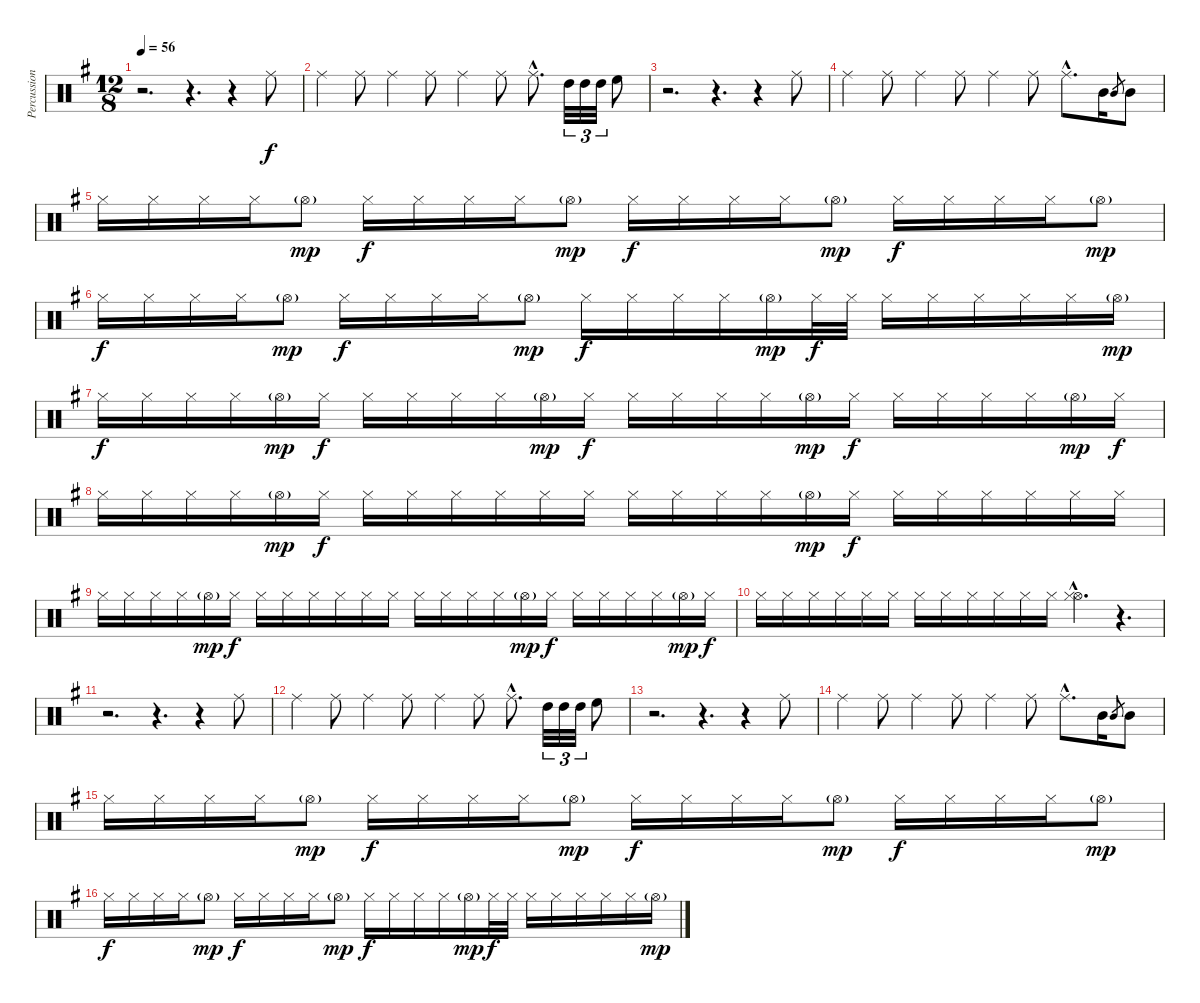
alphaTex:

\track ("Percussions" "Percussion") {instrument percussion}
\staff {score}
\articulation defaults
\ts (12 8)
\tempo 56
\clef neutral
\ks eminor
r.2{d dy f} r.4{d} r.4 "Ride (middle)".8 |
"Ride (middle)".4 "Ride (middle)".8 "Ride (middle)".4 "Ride (middle)".8 "Ride (middle)".4 "Ride (middle)".8 "Ride (middle)"{hac}.8{d} "High Tom (hit)".32{tu (3 2)} "High Tom (hit)".32{tu (3 2)} "High Tom (hit)".32{tu (3 2)} "High Floor Tom (hit)".8 |
r.2{d} r.4{d} r.4 "Ride (middle)".8 |
"Ride (middle)".4 "Ride (middle)".8 "Ride (middle)".4 "Ride (middle)".8 "Ride (middle)".4 "Ride (middle)".8 "Ride (middle)"{hac}.8{d} "Mid Tom (hit)".16 "Mid Tom (hit)".8{gr} "Mid Tom (hit)".8 |
"Hi-Hat (closed)".16 "Hi-Hat (closed)".16 "Hi-Hat (closed)".16 "Hi-Hat (closed)".16 "Hi-Hat (open)"{g}.8{dy mp} "Hi-Hat (closed)".16{dy f} "Hi-Hat (closed)".16 "Hi-Hat (closed)".16 "Hi-Hat (closed)".16 "Hi-Hat (open)"{g}.8{dy mp} "Hi-Hat (closed)".16{dy f} "Hi-Hat (closed)".16 "Hi-Hat (closed)".16 "Hi-Hat (closed)".16 "Hi-Hat (open)"{g}.8{dy mp} "Hi-Hat (closed)".16{dy f} "Hi-Hat (closed)".16 "Hi-Hat (closed)".16 "Hi-Hat (closed)".16 "Hi-Hat (open)"{g}.8{dy mp} |
"Hi-Hat (closed)".16{dy f} "Hi-Hat (closed)".16 "Hi-Hat (closed)".16 "Hi-Hat (closed)".16 "Hi-Hat (open)"{g}.8{dy mp} "Hi-Hat (closed)".16{dy f} "Hi-Hat (closed)".16 "Hi-Hat (closed)".16 "Hi-Hat (closed)".16 "Hi-Hat (open)"{g}.8{dy mp} "Hi-Hat (closed)".16{dy f} "Hi-Hat (closed)".16 "Hi-Hat (closed)".16 "Hi-Hat (closed)".16 "Hi-Hat (open)"{g}.16{dy mp} "Hi-Hat (closed)".32{dy f} "Hi-Hat (closed)".32 "Hi-Hat (closed)".16 "Hi-Hat (closed)".16 "Hi-Hat (closed)".16 "Hi-Hat (closed)".16 "Hi-Hat (closed)".16 "Hi-Hat (open)"{g}.16{dy mp} |
"Hi-Hat (closed)".16{dy f} "Hi-Hat (closed)".16 "Hi-Hat (closed)".16 "Hi-Hat (closed)".16 "Hi-Hat (open)"{g}.16{dy mp} "Hi-Hat (closed)".16{dy f} "Hi-Hat (closed)".16 "Hi-Hat (closed)".16 "Hi-Hat (closed)".16 "Hi-Hat (closed)".16 "Hi-Hat (open)"{g}.16{dy mp} "Hi-Hat (closed)".16{dy f} "Hi-Hat (closed)".16 "Hi-Hat (closed)".16 "Hi-Hat (closed)".16 "Hi-Hat (closed)".16 "Hi-Hat (open)"{g}.16{dy mp} "Hi-Hat (closed)".16{dy f} "Hi-Hat (closed)".16 "Hi-Hat (closed)".16 "Hi-Hat (closed)".16 "Hi-Hat (closed)".16 "Hi-Hat (open)"{g}.16{dy mp} "Hi-Hat (closed)".16{dy f} |
"Hi-Hat (closed)".16 "Hi-Hat (closed)".16 "Hi-Hat (closed)".16 "Hi-Hat (closed)".16 "Hi-Hat (open)"{g}.16{dy mp} "Hi-Hat (closed)".16{dy f} "Hi-Hat (closed)".16 "Hi-Hat (closed)".16 "Hi-Hat (closed)".16 "Hi-Hat (closed)".16 "Hi-Hat (closed)".16 "Hi-Hat (closed)".16 "Hi-Hat (closed)".16 "Hi-Hat (closed)".16 "Hi-Hat (closed)".16 "Hi-Hat (closed)".16 "Hi-Hat (open)"{g}.16{dy mp} "Hi-Hat (closed)".16{dy f} "Hi-Hat (closed)".16 "Hi-Hat (closed)".16 "Hi-Hat (closed)".16 "Hi-Hat (closed)".16 "Hi-Hat (closed)".16 "Hi-Hat (closed)".16 |
"Hi-Hat (closed)".16 "Hi-Hat (closed)".16 "Hi-Hat (closed)".16 "Hi-Hat (closed)".16 "Hi-Hat (open)"{g}.16{dy mp} "Hi-Hat (closed)".16{dy f} "Hi-Hat (closed)".16 "Hi-Hat (closed)".16 "Hi-Hat (closed)".16 "Hi-Hat (closed)".16 "Hi-Hat (closed)".16 "Hi-Hat (closed)".16 "Hi-Hat (closed)".16 "Hi-Hat (closed)".16 "Hi-Hat (closed)".16 "Hi-Hat (closed)".16 "Hi-Hat (open)"{g}.16{dy mp} "Hi-Hat (closed)".16{dy f} "Hi-Hat (closed)".16 "Hi-Hat (closed)".16 "Hi-Hat (closed)".16 "Hi-Hat (closed)".16 "Hi-Hat (open)"{g}.16{dy mp} "Hi-Hat (closed)".16{dy f} |
"Hi-Hat (closed)".16 "Hi-Hat (closed)".16 "Hi-Hat (closed)".16 "Hi-Hat (closed)".16 "Hi-Hat (closed)".16 "Hi-Hat (closed)".16 "Hi-Hat (closed)".16 "Hi-Hat (closed)".16 "Hi-Hat (closed)".16 "Hi-Hat (closed)".16 "Hi-Hat (closed)".16 "Hi-Hat (closed)".16 ("Hi-Hat (open)"{hac} "Hi-Hat (closed)"{hac}).4{d} r.4{d} |
r.2{d} r.4{d} r.4 "Ride (middle)".8 |
"Ride (middle)".4 "Ride (middle)".8 "Ride (middle)".4 "Ride (middle)".8 "Ride (middle)".4 "Ride (middle)".8 "Ride (middle)"{hac}.8{d} "High Tom (hit)".32{tu (3 2)} "High Tom (hit)".32{tu (3 2)} "High Tom (hit)".32{tu (3 2)} "High Floor Tom (hit)".8 |
r.2{d} r.4{d} r.4 "Ride (middle)".8 |
"Ride (middle)".4 "Ride (middle)".8 "Ride (middle)".4 "Ride (middle)".8 "Ride (middle)".4 "Ride (middle)".8 "Ride (middle)"{hac}.8{d} "Mid Tom (hit)".16 "Mid Tom (hit)".8{gr} "Mid Tom (hit)".8 |
"Hi-Hat (closed)".16 "Hi-Hat (closed)".16 "Hi-Hat (closed)".16 "Hi-Hat (closed)".16 "Hi-Hat (open)"{g}.8{dy mp} "Hi-Hat (closed)".16{dy f} "Hi-Hat (closed)".16 "Hi-Hat (closed)".16 "Hi-Hat (closed)".16 "Hi-Hat (open)"{g}.8{dy mp} "Hi-Hat (closed)".16{dy f} "Hi-Hat (closed)".16 "Hi-Hat (closed)".16 "Hi-Hat (closed)".16 "Hi-Hat (open)"{g}.8{dy mp} "Hi-Hat (closed)".16{dy f} "Hi-Hat (closed)".16 "Hi-Hat (closed)".16 "Hi-Hat (closed)".16 "Hi-Hat (open)"{g}.8{dy mp} |
"Hi-Hat (closed)".16{dy f} "Hi-Hat (closed)".16 "Hi-Hat (closed)".16 "Hi-Hat (closed)".16 "Hi-Hat (open)"{g}.8{dy mp} "Hi-Hat (closed)".16{dy f} "Hi-Hat (closed)".16 "Hi-Hat (closed)".16 "Hi-Hat (closed)".16 "Hi-Hat (open)"{g}.8{dy mp} "Hi-Hat (closed)".16{dy f} "Hi-Hat (closed)".16 "Hi-Hat (closed)".16 "Hi-Hat (closed)".16 "Hi-Hat (open)"{g}.16{dy mp} "Hi-Hat (closed)".32{dy f} "Hi-Hat (closed)".32 "Hi-Hat (closed)".16 "Hi-Hat (closed)".16 "Hi-Hat (closed)".16 "Hi-Hat (closed)".16 "Hi-Hat (closed)".16 "Hi-Hat (open)"{g}.16{dy mp}
